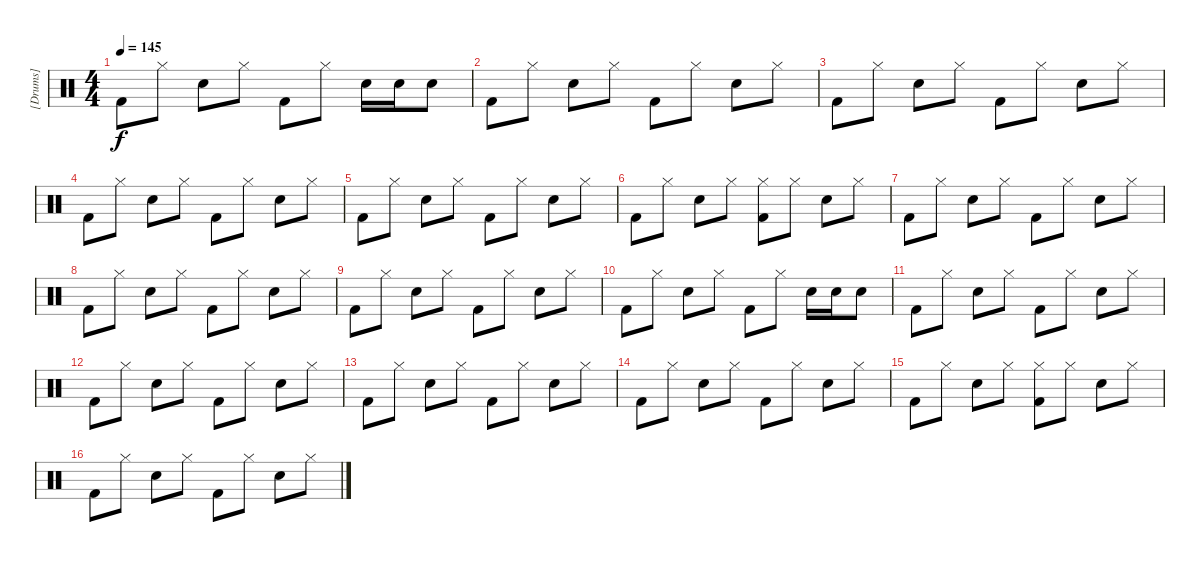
\track ("[Drums]" "[Drums]") {instrument percussion}
\staff {score}
\articulation defaults
\ts (4 4)
\tempo 145
\clef neutral
\ks c "Kick (hit) 2".8{dy f} "Hi-Hat (closed)".8 "Electric Snare (hit)".8 "Hi-Hat (closed)".8 "Kick (hit) 2".8 "Hi-Hat (closed)".8 "Electric Snare (hit)".16 "Electric Snare (hit)".16 "Electric Snare (hit)".8
|
"Kick (hit) 2".8 "Hi-Hat (closed)".8 "Electric Snare (hit)".8 "Hi-Hat (closed)".8 "Kick (hit) 2".8 "Hi-Hat (closed)".8 "Electric Snare (hit)".8 "Hi-Hat (closed)".8 |
"Kick (hit) 2".8 "Hi-Hat (closed)".8 "Electric Snare (hit)".8 "Hi-Hat (closed)".8 "Kick (hit) 2".8 "Hi-Hat (closed)".8 "Electric Snare (hit)".8 "Hi-Hat (closed)".8 |
"Kick (hit) 2".8 "Hi-Hat (closed)".8 "Electric Snare (hit)".8 "Hi-Hat (closed)".8 "Kick (hit) 2".8 "Hi-Hat (closed)".8 "Electric Snare (hit)".8 "Hi-Hat (closed)".8 |
"Kick (hit) 2".8 "Hi-Hat (closed)".8 "Electric Snare (hit)".8 "Hi-Hat (closed)".8 "Kick (hit) 2".8 "Hi-Hat (closed)".8 "Electric Snare (hit)".8 "Hi-Hat (closed)".8 |
"Kick (hit) 2".8 "Hi-Hat (closed)".8 "Electric Snare (hit)".8 "Hi-Hat (closed)".8 ("Hi-Hat (closed)" "Kick (hit) 2").8 "Hi-Hat (closed)".8 "Electric Snare (hit)".8 "Hi-Hat (closed)".8 |
"Kick (hit) 2".8 "Hi-Hat (closed)".8 "Electric Snare (hit)".8 "Hi-Hat (closed)".8 "Kick (hit) 2".8 "Hi-Hat (closed)".8 "Electric Snare (hit)".8 "Hi-Hat (closed)".8 |
"Kick (hit) 2".8 "Hi-Hat (closed)".8 "Electric Snare (hit)".8 "Hi-Hat (closed)".8 "Kick (hit) 2".8 "Hi-Hat (closed)".8 "Electric Snare (hit)".8 "Hi-Hat (closed)".8 |
"Kick (hit) 2".8 "Hi-Hat (closed)".8 "Electric Snare (hit)".8 "Hi-Hat (closed)".8 "Kick (hit) 2".8 "Hi-Hat (closed)".8 "Electric Snare (hit)".8 "Hi-Hat (closed)".8 |
"Kick (hit) 2".8 "Hi-Hat (closed)".8 "Electric Snare (hit)".8 "Hi-Hat (closed)".8 "Kick (hit) 2".8 "Hi-Hat (closed)".8 "Electric Snare (hit)".16 "Electric Snare (hit)".16 "Electric Snare (hit)".8 |
"Kick (hit) 2".8 "Hi-Hat (closed)".8 "Electric Snare (hit)".8 "Hi-Hat (closed)".8 "Kick (hit) 2".8 "Hi-Hat (closed)".8 "Electric Snare (hit)".8 "Hi-Hat (closed)".8 |
"Kick (hit) 2".8 "Hi-Hat (closed)".8 "Electric Snare (hit)".8 "Hi-Hat (closed)".8 "Kick (hit) 2".8 "Hi-Hat (closed)".8 "Electric Snare (hit)".8 "Hi-Hat (closed)".8 |
"Kick (hit) 2".8 "Hi-Hat (closed)".8 "Electric Snare (hit)".8 "Hi-Hat (closed)".8 "Kick (hit) 2".8 "Hi-Hat (closed)".8 "Electric Snare (hit)".8 "Hi-Hat (closed)".8 |
"Kick (hit) 2".8 "Hi-Hat (closed)".8 "Electric Snare (hit)".8 "Hi-Hat (closed)".8 "Kick (hit) 2".8 "Hi-Hat (closed)".8 "Electric Snare (hit)".8 "Hi-Hat (closed)".8 |
"Kick (hit) 2".8 "Hi-Hat (closed)".8 "Electric Snare (hit)".8 "Hi-Hat (closed)".8 ("Hi-Hat (closed)" "Kick (hit) 2").8 "Hi-Hat (closed)".8 "Electric Snare (hit)".8 "Hi-Hat (closed)".8 |
"Kick (hit) 2".8 "Hi-Hat (closed)".8 "Electric Snare (hit)".8 "Hi-Hat (closed)".8 "Kick (hit) 2".8 "Hi-Hat (closed)".8 "Electric Snare (hit)".8 "Hi-Hat (closed)".8
